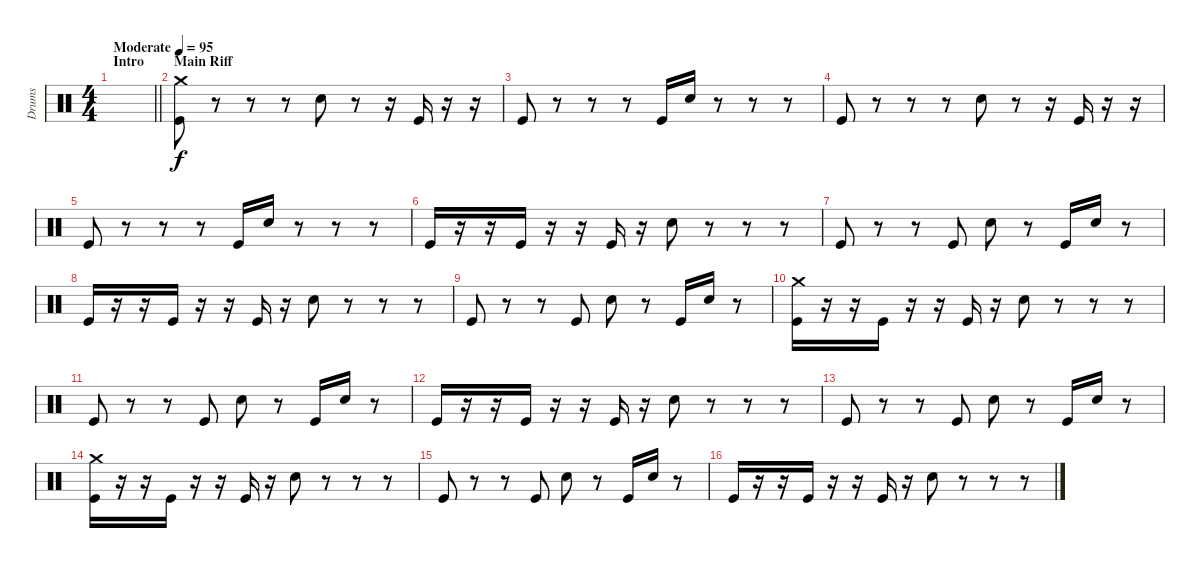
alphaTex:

\track ("Drums" "Drums") {instrument percussion}
\staff {score}
\articulation defaults
\ts (4 4)
\section ("" "Intro")
\tempo (95 "Moderate")
\clef neutral
\barLineRight lightlight
\ks c
|
\section ("" "Main Riff")
("Crash medium (hit)" "Kick (hit)").8 r.8 r.8 r.8 "Electric Snare (hit)".8 r.8 r.16 "Kick (hit)".16 r.16 r.16 |
"Kick (hit)".8 r.8 r.8 r.8 "Kick (hit)".16 "Electric Snare (hit)".16 r.8 r.8 r.8 |
"Kick (hit)".8 r.8 r.8 r.8 "Electric Snare (hit)".8 r.8 r.16 "Kick (hit)".16 r.16 r.16 |
"Kick (hit)".8 r.8 r.8 r.8 "Kick (hit)".16 "Electric Snare (hit)".16 r.8 r.8 r.8 |
"Kick (hit)".16 r.16 r.16 "Kick (hit)".16 r.16 r.16 "Kick (hit)".16 r.16 "Electric Snare (hit)".8 r.8 r.8 r.8 |
"Kick (hit)".8 r.8 r.8 "Kick (hit)".8 "Electric Snare (hit)".8 r.8 "Kick (hit)".16 "Electric Snare (hit)".16 r.8 |
"Kick (hit)".16 r.16 r.16 "Kick (hit)".16 r.16 r.16 "Kick (hit)".16 r.16 "Electric Snare (hit)".8 r.8 r.8 r.8 |
"Kick (hit)".8 r.8 r.8 "Kick (hit)".8 "Electric Snare (hit)".8 r.8 "Kick (hit)".16 "Electric Snare (hit)".16 r.8 |
("Crash medium (hit)" "Kick (hit)").16 r.16 r.16 "Kick (hit)".16 r.16 r.16 "Kick (hit)".16 r.16 "Electric Snare (hit)".8 r.8 r.8 r.8 |
"Kick (hit)".8 r.8 r.8 "Kick (hit)".8 "Electric Snare (hit)".8 r.8 "Kick (hit)".16 "Electric Snare (hit)".16 r.8 |
"Kick (hit)".16 r.16 r.16 "Kick (hit)".16 r.16 r.16 "Kick (hit)".16 r.16 "Electric Snare (hit)".8 r.8 r.8 r.8 |
"Kick (hit)".8 r.8 r.8 "Kick (hit)".8 "Electric Snare (hit)".8 r.8 "Kick (hit)".16 "Electric Snare (hit)".16 r.8 |
("Crash medium (hit)" "Kick (hit)").16 r.16 r.16 "Kick (hit)".16 r.16 r.16 "Kick (hit)".16 r.16 "Electric Snare (hit)".8 r.8 r.8 r.8 |
"Kick (hit)".8 r.8 r.8 "Kick (hit)".8 "Electric Snare (hit)".8 r.8 "Kick (hit)".16 "Electric Snare (hit)".16 r.8 |
"Kick (hit)".16 r.16 r.16 "Kick (hit)".16 r.16 r.16 "Kick (hit)".16 r.16 "Electric Snare (hit)".8 r.8 r.8 r.8
